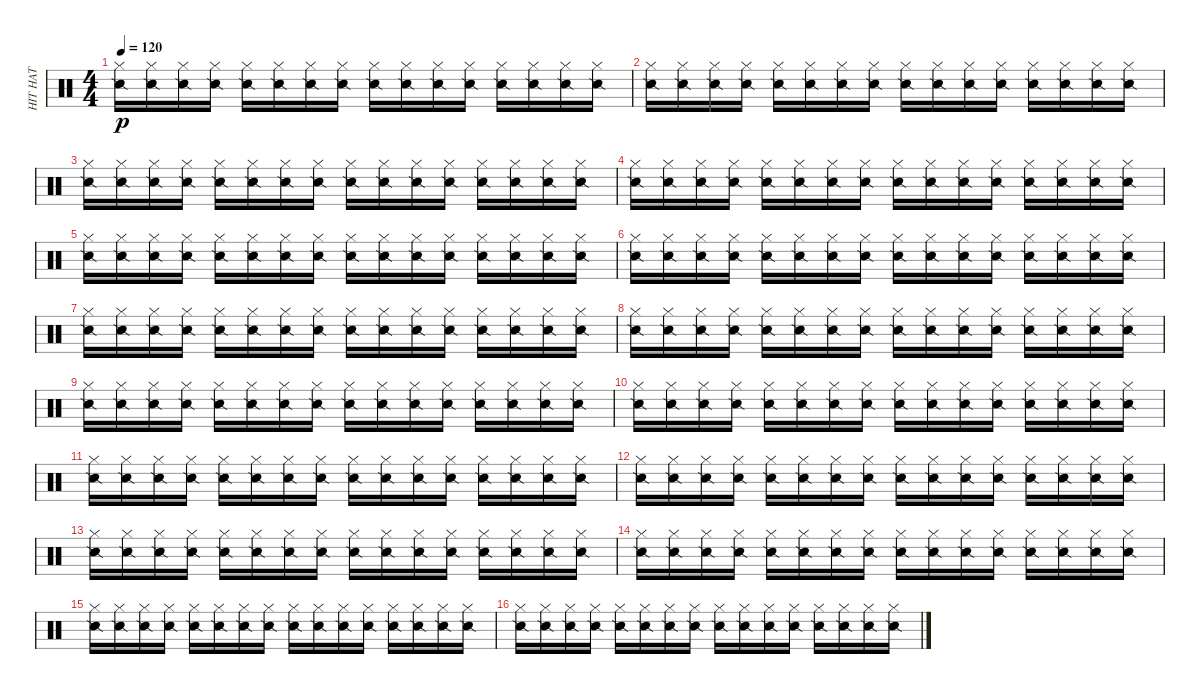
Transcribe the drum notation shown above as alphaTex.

\track ("HIT HAT" "HIT HAT") {instrument percussion}
\staff {score}
\articulation defaults
\ts (4 4)
\tempo 120
\clef neutral
\ks c
("Hi-Hat (closed)" "Snare (side stick) 2").16{dy p} ("Hi-Hat (closed)" "Snare (side stick) 2").16 ("Hi-Hat (closed)" "Snare (side stick) 2").16 ("Hi-Hat (closed)" "Snare (side stick) 2").16 ("Hi-Hat (closed)" "Snare (side stick) 2").16 ("Hi-Hat (closed)" "Snare (side stick) 2").16 ("Hi-Hat (closed)" "Snare (side stick) 2").16 ("Hi-Hat (closed)" "Snare (side stick) 2").16 ("Hi-Hat (closed)" "Snare (side stick) 2").16 ("Hi-Hat (closed)" "Snare (side stick) 2").16 ("Hi-Hat (closed)" "Snare (side stick) 2").16 ("Hi-Hat (closed)" "Snare (side stick) 2").16 ("Hi-Hat (closed)" "Snare (side stick) 2").16 ("Hi-Hat (closed)" "Snare (side stick) 2").16 ("Hi-Hat (closed)" "Snare (side stick) 2").16 ("Hi-Hat (closed)" "Snare (side stick) 2").16 |
("Hi-Hat (closed)" "Snare (side stick) 2").16 ("Hi-Hat (closed)" "Snare (side stick) 2").16 ("Hi-Hat (closed)" "Snare (side stick) 2").16 ("Hi-Hat (closed)" "Snare (side stick) 2").16 ("Hi-Hat (closed)" "Snare (side stick) 2").16 ("Hi-Hat (closed)" "Snare (side stick) 2").16 ("Hi-Hat (closed)" "Snare (side stick) 2").16 ("Hi-Hat (closed)" "Snare (side stick) 2").16 ("Hi-Hat (closed)" "Snare (side stick) 2").16 ("Hi-Hat (closed)" "Snare (side stick) 2").16 ("Hi-Hat (closed)" "Snare (side stick) 2").16 ("Hi-Hat (closed)" "Snare (side stick) 2").16 ("Hi-Hat (closed)" "Snare (side stick) 2").16 ("Hi-Hat (closed)" "Snare (side stick) 2").16 ("Hi-Hat (closed)" "Snare (side stick) 2").16 ("Hi-Hat (closed)" "Snare (side stick) 2").16 |
("Hi-Hat (closed)" "Snare (side stick) 2").16 ("Hi-Hat (closed)" "Snare (side stick) 2").16 ("Hi-Hat (closed)" "Snare (side stick) 2").16 ("Hi-Hat (closed)" "Snare (side stick) 2").16 ("Hi-Hat (closed)" "Snare (side stick) 2").16 ("Hi-Hat (closed)" "Snare (side stick) 2").16 ("Hi-Hat (closed)" "Snare (side stick) 2").16 ("Hi-Hat (closed)" "Snare (side stick) 2").16 ("Hi-Hat (closed)" "Snare (side stick) 2").16 ("Hi-Hat (closed)" "Snare (side stick) 2").16 ("Hi-Hat (closed)" "Snare (side stick) 2").16 ("Hi-Hat (closed)" "Snare (side stick) 2").16 ("Hi-Hat (closed)" "Snare (side stick) 2").16 ("Hi-Hat (closed)" "Snare (side stick) 2").16 ("Hi-Hat (closed)" "Snare (side stick) 2").16 ("Hi-Hat (closed)" "Snare (side stick) 2").16 |
("Hi-Hat (closed)" "Snare (side stick) 2").16 ("Hi-Hat (closed)" "Snare (side stick) 2").16 ("Hi-Hat (closed)" "Snare (side stick) 2").16 ("Hi-Hat (closed)" "Snare (side stick) 2").16 ("Hi-Hat (closed)" "Snare (side stick) 2").16 ("Hi-Hat (closed)" "Snare (side stick) 2").16 ("Hi-Hat (closed)" "Snare (side stick) 2").16 ("Hi-Hat (closed)" "Snare (side stick) 2").16 ("Hi-Hat (closed)" "Snare (side stick) 2").16 ("Hi-Hat (closed)" "Snare (side stick) 2").16 ("Hi-Hat (closed)" "Snare (side stick) 2").16 ("Hi-Hat (closed)" "Snare (side stick) 2").16 ("Hi-Hat (closed)" "Snare (side stick) 2").16 ("Hi-Hat (closed)" "Snare (side stick) 2").16 ("Hi-Hat (closed)" "Snare (side stick) 2").16 ("Hi-Hat (closed)" "Snare (side stick) 2").16 |
("Hi-Hat (closed)" "Snare (side stick) 2").16 ("Hi-Hat (closed)" "Snare (side stick) 2").16 ("Hi-Hat (closed)" "Snare (side stick) 2").16 ("Hi-Hat (closed)" "Snare (side stick) 2").16 ("Hi-Hat (closed)" "Snare (side stick) 2").16 ("Hi-Hat (closed)" "Snare (side stick) 2").16 ("Hi-Hat (closed)" "Snare (side stick) 2").16 ("Hi-Hat (closed)" "Snare (side stick) 2").16 ("Hi-Hat (closed)" "Snare (side stick) 2").16 ("Hi-Hat (closed)" "Snare (side stick) 2").16 ("Hi-Hat (closed)" "Snare (side stick) 2").16 ("Hi-Hat (closed)" "Snare (side stick) 2").16 ("Hi-Hat (closed)" "Snare (side stick) 2").16 ("Hi-Hat (closed)" "Snare (side stick) 2").16 ("Hi-Hat (closed)" "Snare (side stick) 2").16 ("Hi-Hat (closed)" "Snare (side stick) 2").16 |
("Hi-Hat (closed)" "Snare (side stick) 2").16 ("Hi-Hat (closed)" "Snare (side stick) 2").16 ("Hi-Hat (closed)" "Snare (side stick) 2").16 ("Hi-Hat (closed)" "Snare (side stick) 2").16 ("Hi-Hat (closed)" "Snare (side stick) 2").16 ("Hi-Hat (closed)" "Snare (side stick) 2").16 ("Hi-Hat (closed)" "Snare (side stick) 2").16 ("Hi-Hat (closed)" "Snare (side stick) 2").16 ("Hi-Hat (closed)" "Snare (side stick) 2").16 ("Hi-Hat (closed)" "Snare (side stick) 2").16 ("Hi-Hat (closed)" "Snare (side stick) 2").16 ("Hi-Hat (closed)" "Snare (side stick) 2").16 ("Hi-Hat (closed)" "Snare (side stick) 2").16 ("Hi-Hat (closed)" "Snare (side stick) 2").16 ("Hi-Hat (closed)" "Snare (side stick) 2").16 ("Hi-Hat (closed)" "Snare (side stick) 2").16 |
("Hi-Hat (closed)" "Snare (side stick) 2").16 ("Hi-Hat (closed)" "Snare (side stick) 2").16 ("Hi-Hat (closed)" "Snare (side stick) 2").16 ("Hi-Hat (closed)" "Snare (side stick) 2").16 ("Hi-Hat (closed)" "Snare (side stick) 2").16 ("Hi-Hat (closed)" "Snare (side stick) 2").16 ("Hi-Hat (closed)" "Snare (side stick) 2").16 ("Hi-Hat (closed)" "Snare (side stick) 2").16 ("Hi-Hat (closed)" "Snare (side stick) 2").16 ("Hi-Hat (closed)" "Snare (side stick) 2").16 ("Hi-Hat (closed)" "Snare (side stick) 2").16 ("Hi-Hat (closed)" "Snare (side stick) 2").16 ("Hi-Hat (closed)" "Snare (side stick) 2").16 ("Hi-Hat (closed)" "Snare (side stick) 2").16 ("Hi-Hat (closed)" "Snare (side stick) 2").16 ("Hi-Hat (closed)" "Snare (side stick) 2").16 |
("Hi-Hat (closed)" "Snare (side stick) 2").16 ("Hi-Hat (closed)" "Snare (side stick) 2").16 ("Hi-Hat (closed)" "Snare (side stick) 2").16 ("Hi-Hat (closed)" "Snare (side stick) 2").16 ("Hi-Hat (closed)" "Snare (side stick) 2").16 ("Hi-Hat (closed)" "Snare (side stick) 2").16 ("Hi-Hat (closed)" "Snare (side stick) 2").16 ("Hi-Hat (closed)" "Snare (side stick) 2").16 ("Hi-Hat (closed)" "Snare (side stick) 2").16 ("Hi-Hat (closed)" "Snare (side stick) 2").16 ("Hi-Hat (closed)" "Snare (side stick) 2").16 ("Hi-Hat (closed)" "Snare (side stick) 2").16 ("Hi-Hat (closed)" "Snare (side stick) 2").16 ("Hi-Hat (closed)" "Snare (side stick) 2").16 ("Hi-Hat (closed)" "Snare (side stick) 2").16 ("Hi-Hat (closed)" "Snare (side stick) 2").16 |
("Hi-Hat (closed)" "Snare (side stick) 2").16 ("Hi-Hat (closed)" "Snare (side stick) 2").16 ("Hi-Hat (closed)" "Snare (side stick) 2").16 ("Hi-Hat (closed)" "Snare (side stick) 2").16 ("Hi-Hat (closed)" "Snare (side stick) 2").16 ("Hi-Hat (closed)" "Snare (side stick) 2").16 ("Hi-Hat (closed)" "Snare (side stick) 2").16 ("Hi-Hat (closed)" "Snare (side stick) 2").16 ("Hi-Hat (closed)" "Snare (side stick) 2").16 ("Hi-Hat (closed)" "Snare (side stick) 2").16 ("Hi-Hat (closed)" "Snare (side stick) 2").16 ("Hi-Hat (closed)" "Snare (side stick) 2").16 ("Hi-Hat (closed)" "Snare (side stick) 2").16 ("Hi-Hat (closed)" "Snare (side stick) 2").16 ("Hi-Hat (closed)" "Snare (side stick) 2").16 ("Hi-Hat (closed)" "Snare (side stick) 2").16 |
("Hi-Hat (closed)" "Snare (side stick) 2").16 ("Hi-Hat (closed)" "Snare (side stick) 2").16 ("Hi-Hat (closed)" "Snare (side stick) 2").16 ("Hi-Hat (closed)" "Snare (side stick) 2").16 ("Hi-Hat (closed)" "Snare (side stick) 2").16 ("Hi-Hat (closed)" "Snare (side stick) 2").16 ("Hi-Hat (closed)" "Snare (side stick) 2").16 ("Hi-Hat (closed)" "Snare (side stick) 2").16 ("Hi-Hat (closed)" "Snare (side stick) 2").16 ("Hi-Hat (closed)" "Snare (side stick) 2").16 ("Hi-Hat (closed)" "Snare (side stick) 2").16 ("Hi-Hat (closed)" "Snare (side stick) 2").16 ("Hi-Hat (closed)" "Snare (side stick) 2").16 ("Hi-Hat (closed)" "Snare (side stick) 2").16 ("Hi-Hat (closed)" "Snare (side stick) 2").16 ("Hi-Hat (closed)" "Snare (side stick) 2").16 |
("Hi-Hat (closed)" "Snare (side stick) 2").16 ("Hi-Hat (closed)" "Snare (side stick) 2").16 ("Hi-Hat (closed)" "Snare (side stick) 2").16 ("Hi-Hat (closed)" "Snare (side stick) 2").16 ("Hi-Hat (closed)" "Snare (side stick) 2").16 ("Hi-Hat (closed)" "Snare (side stick) 2").16 ("Hi-Hat (closed)" "Snare (side stick) 2").16 ("Hi-Hat (closed)" "Snare (side stick) 2").16 ("Hi-Hat (closed)" "Snare (side stick) 2").16 ("Hi-Hat (closed)" "Snare (side stick) 2").16 ("Hi-Hat (closed)" "Snare (side stick) 2").16 ("Hi-Hat (closed)" "Snare (side stick) 2").16 ("Hi-Hat (closed)" "Snare (side stick) 2").16 ("Hi-Hat (closed)" "Snare (side stick) 2").16 ("Hi-Hat (closed)" "Snare (side stick) 2").16 ("Hi-Hat (closed)" "Snare (side stick) 2").16 |
("Hi-Hat (closed)" "Snare (side stick) 2").16 ("Hi-Hat (closed)" "Snare (side stick) 2").16 ("Hi-Hat (closed)" "Snare (side stick) 2").16 ("Hi-Hat (closed)" "Snare (side stick) 2").16 ("Hi-Hat (closed)" "Snare (side stick) 2").16 ("Hi-Hat (closed)" "Snare (side stick) 2").16 ("Hi-Hat (closed)" "Snare (side stick) 2").16 ("Hi-Hat (closed)" "Snare (side stick) 2").16 ("Hi-Hat (closed)" "Snare (side stick) 2").16 ("Hi-Hat (closed)" "Snare (side stick) 2").16 ("Hi-Hat (closed)" "Snare (side stick) 2").16 ("Hi-Hat (closed)" "Snare (side stick) 2").16 ("Hi-Hat (closed)" "Snare (side stick) 2").16 ("Hi-Hat (closed)" "Snare (side stick) 2").16 ("Hi-Hat (closed)" "Snare (side stick) 2").16 ("Hi-Hat (closed)" "Snare (side stick) 2").16 |
("Hi-Hat (closed)" "Snare (side stick) 2").16 ("Hi-Hat (closed)" "Snare (side stick) 2").16 ("Hi-Hat (closed)" "Snare (side stick) 2").16 ("Hi-Hat (closed)" "Snare (side stick) 2").16 ("Hi-Hat (closed)" "Snare (side stick) 2").16 ("Hi-Hat (closed)" "Snare (side stick) 2").16 ("Hi-Hat (closed)" "Snare (side stick) 2").16 ("Hi-Hat (closed)" "Snare (side stick) 2").16 ("Hi-Hat (closed)" "Snare (side stick) 2").16 ("Hi-Hat (closed)" "Snare (side stick) 2").16 ("Hi-Hat (closed)" "Snare (side stick) 2").16 ("Hi-Hat (closed)" "Snare (side stick) 2").16 ("Hi-Hat (closed)" "Snare (side stick) 2").16 ("Hi-Hat (closed)" "Snare (side stick) 2").16 ("Hi-Hat (closed)" "Snare (side stick) 2").16 ("Hi-Hat (closed)" "Snare (side stick) 2").16 |
("Hi-Hat (closed)" "Snare (side stick) 2").16 ("Hi-Hat (closed)" "Snare (side stick) 2").16 ("Hi-Hat (closed)" "Snare (side stick) 2").16 ("Hi-Hat (closed)" "Snare (side stick) 2").16 ("Hi-Hat (closed)" "Snare (side stick) 2").16 ("Hi-Hat (closed)" "Snare (side stick) 2").16 ("Hi-Hat (closed)" "Snare (side stick) 2").16 ("Hi-Hat (closed)" "Snare (side stick) 2").16 ("Hi-Hat (closed)" "Snare (side stick) 2").16 ("Hi-Hat (closed)" "Snare (side stick) 2").16 ("Hi-Hat (closed)" "Snare (side stick) 2").16 ("Hi-Hat (closed)" "Snare (side stick) 2").16 ("Hi-Hat (closed)" "Snare (side stick) 2").16 ("Hi-Hat (closed)" "Snare (side stick) 2").16 ("Hi-Hat (closed)" "Snare (side stick) 2").16 ("Hi-Hat (closed)" "Snare (side stick) 2").16 |
("Hi-Hat (closed)" "Snare (side stick) 2").16 ("Hi-Hat (closed)" "Snare (side stick) 2").16 ("Hi-Hat (closed)" "Snare (side stick) 2").16 ("Hi-Hat (closed)" "Snare (side stick) 2").16 ("Hi-Hat (closed)" "Snare (side stick) 2").16 ("Hi-Hat (closed)" "Snare (side stick) 2").16 ("Hi-Hat (closed)" "Snare (side stick) 2").16 ("Hi-Hat (closed)" "Snare (side stick) 2").16 ("Hi-Hat (closed)" "Snare (side stick) 2").16 ("Hi-Hat (closed)" "Snare (side stick) 2").16 ("Hi-Hat (closed)" "Snare (side stick) 2").16 ("Hi-Hat (closed)" "Snare (side stick) 2").16 ("Hi-Hat (closed)" "Snare (side stick) 2").16 ("Hi-Hat (closed)" "Snare (side stick) 2").16 ("Hi-Hat (closed)" "Snare (side stick) 2").16 ("Hi-Hat (closed)" "Snare (side stick) 2").16 |
("Hi-Hat (closed)" "Snare (side stick) 2").16 ("Hi-Hat (closed)" "Snare (side stick) 2").16 ("Hi-Hat (closed)" "Snare (side stick) 2").16 ("Hi-Hat (closed)" "Snare (side stick) 2").16 ("Hi-Hat (closed)" "Snare (side stick) 2").16 ("Hi-Hat (closed)" "Snare (side stick) 2").16 ("Hi-Hat (closed)" "Snare (side stick) 2").16 ("Hi-Hat (closed)" "Snare (side stick) 2").16 ("Hi-Hat (closed)" "Snare (side stick) 2").16 ("Hi-Hat (closed)" "Snare (side stick) 2").16 ("Hi-Hat (closed)" "Snare (side stick) 2").16 ("Hi-Hat (closed)" "Snare (side stick) 2").16 ("Hi-Hat (closed)" "Snare (side stick) 2").16 ("Hi-Hat (closed)" "Snare (side stick) 2").16 ("Hi-Hat (closed)" "Snare (side stick) 2").16 ("Hi-Hat (closed)" "Snare (side stick) 2").16
